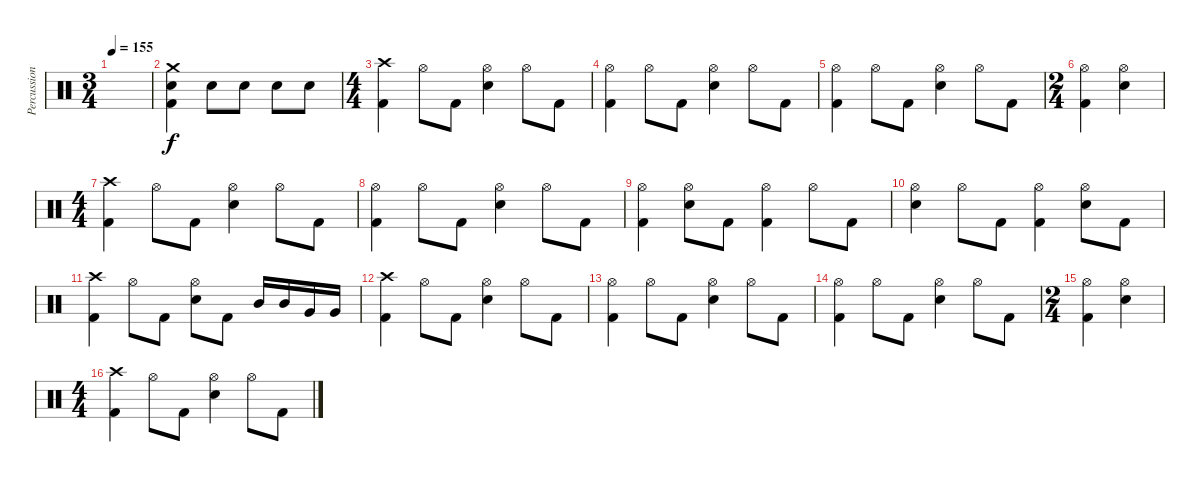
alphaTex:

\track ("Percussion" "Percussion") {instrument percussion}
\staff {score}
\articulation defaults
\ts (3 4)
\tempo 155
\clef neutral
\ks c
|
("Crash medium (hit)" "Electric Snare (hit)" "Kick (hit) 2").4 "Electric Snare (hit)".8 "Electric Snare (hit)".8 "Electric Snare (hit)".8 "Electric Snare (hit)".8 |
\ts (4 4)
("Crash high (hit)" "Kick (hit) 2").4 "Hi-Hat (open)".8 "Kick (hit) 2".8 ("Hi-Hat (open)" "Electric Snare (hit)").4 "Hi-Hat (open)".8 "Kick (hit) 2".8 |
("Hi-Hat (open)" "Kick (hit) 2").4 "Hi-Hat (open)".8 "Kick (hit) 2".8 ("Hi-Hat (open)" "Electric Snare (hit)").4 "Hi-Hat (open)".8 "Kick (hit) 2".8 |
("Hi-Hat (open)" "Kick (hit) 2").4 "Hi-Hat (open)".8 "Kick (hit) 2".8 ("Hi-Hat (open)" "Electric Snare (hit)").4 "Hi-Hat (open)".8 "Kick (hit) 2".8 |
\ts (2 4)
("Hi-Hat (open)" "Kick (hit) 2").4 ("Hi-Hat (open)" "Electric Snare (hit)").4 |
\ts (4 4)
("Crash high (hit)" "Kick (hit) 2").4 "Hi-Hat (open)".8 "Kick (hit) 2".8 ("Hi-Hat (open)" "Electric Snare (hit)").4 "Hi-Hat (open)".8 "Kick (hit) 2".8 |
("Hi-Hat (open)" "Kick (hit) 2").4 "Hi-Hat (open)".8 "Kick (hit) 2".8 ("Hi-Hat (open)" "Electric Snare (hit)").4 "Hi-Hat (open)".8 "Kick (hit) 2".8 |
("Hi-Hat (open)" "Kick (hit) 2").4 ("Hi-Hat (open)" "Electric Snare (hit)").8 "Kick (hit) 2".8 ("Hi-Hat (open)" "Kick (hit) 2").4 "Hi-Hat (open)".8 "Kick (hit) 2".8 |
("Hi-Hat (open)" "Electric Snare (hit)").4 "Hi-Hat (open)".8 "Kick (hit) 2".8 ("Hi-Hat (open)" "Kick (hit) 2").4 ("Hi-Hat (open)" "Electric Snare (hit)").8 "Kick (hit) 2".8 |
("Crash high (hit)" "Kick (hit) 2").4 "Hi-Hat (open)".8 "Kick (hit) 2".8 ("Hi-Hat (open)" "Electric Snare (hit)").8 "Kick (hit) 2".8 "Mid Tom (hit)".16 "Mid Tom (hit)".16 "Very Low Tom (hit)".16 "Very Low Tom (hit)".16 |
("Crash high (hit)" "Kick (hit) 2").4 "Hi-Hat (open)".8 "Kick (hit) 2".8 ("Hi-Hat (open)" "Electric Snare (hit)").4 "Hi-Hat (open)".8 "Kick (hit) 2".8 |
("Hi-Hat (open)" "Kick (hit) 2").4 "Hi-Hat (open)".8 "Kick (hit) 2".8 ("Hi-Hat (open)" "Electric Snare (hit)").4 "Hi-Hat (open)".8 "Kick (hit) 2".8 |
("Hi-Hat (open)" "Kick (hit) 2").4 "Hi-Hat (open)".8 "Kick (hit) 2".8 ("Hi-Hat (open)" "Electric Snare (hit)").4 "Hi-Hat (open)".8 "Kick (hit) 2".8 |
\ts (2 4)
("Hi-Hat (open)" "Kick (hit) 2").4 ("Hi-Hat (open)" "Electric Snare (hit)").4 |
\ts (4 4)
("Crash high (hit)" "Kick (hit) 2").4 "Hi-Hat (open)".8 "Kick (hit) 2".8 ("Hi-Hat (open)" "Electric Snare (hit)").4 "Hi-Hat (open)".8 "Kick (hit) 2".8
